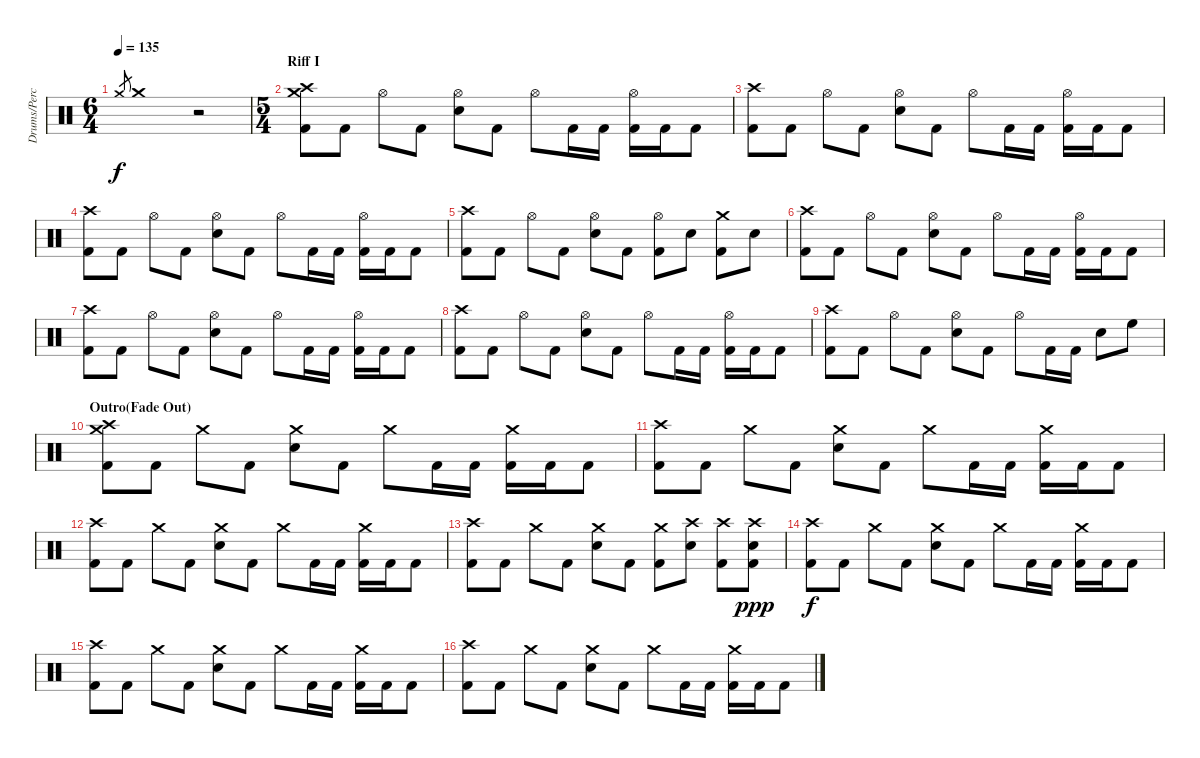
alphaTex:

\track ("Drums/Percussion" "Drums/Perc") {instrument percussion}
\staff {score}
\articulation defaults
\ts (6 4)
\tempo 135
\clef neutral
\ks c "Crash medium (hit)".8{gr dy f} "Crash medium (hit)".1
r.2 |
\ts (5 4)
\section ("" "Riff I")
("Crash medium (hit)" "Crash high (hit)" "Kick (hit) 2").8 "Kick (hit) 2".8 "Hi-Hat (open)".8 "Kick (hit) 2".8 ("Hi-Hat (open)" "Snare (hit) 2").8 "Kick (hit) 2".8 "Hi-Hat (open)".8 "Kick (hit) 2".16 "Kick (hit) 2".16 ("Hi-Hat (open)" "Kick (hit) 2").16 "Kick (hit) 2".16 "Kick (hit) 2".8 |
("Crash high (hit)" "Kick (hit) 2").8 "Kick (hit) 2".8 "Hi-Hat (open)".8 "Kick (hit) 2".8 ("Hi-Hat (open)" "Snare (hit) 2").8 "Kick (hit) 2".8 "Hi-Hat (open)".8 "Kick (hit) 2".16 "Kick (hit) 2".16 ("Hi-Hat (open)" "Kick (hit) 2").16 "Kick (hit) 2".16 "Kick (hit) 2".8 |
("Crash high (hit)" "Kick (hit) 2").8 "Kick (hit) 2".8 "Hi-Hat (open)".8 "Kick (hit) 2".8 ("Hi-Hat (open)" "Snare (hit) 2").8 "Kick (hit) 2".8 "Hi-Hat (open)".8 "Kick (hit) 2".16 "Kick (hit) 2".16 ("Hi-Hat (open)" "Kick (hit) 2").16 "Kick (hit) 2".16 "Kick (hit) 2".8 |
("Crash high (hit)" "Kick (hit) 2").8 "Kick (hit) 2".8 "Hi-Hat (open)".8 "Kick (hit) 2".8 ("Hi-Hat (open)" "Snare (hit) 2").8 "Kick (hit) 2".8 ("Hi-Hat (open)" "Kick (hit) 2").8 "Snare (hit) 2".8 ("Crash medium (hit)" "Kick (hit) 2").8 "Snare (hit) 2".8 |
("Crash high (hit)" "Kick (hit) 2").8 "Kick (hit) 2".8 "Hi-Hat (open)".8 "Kick (hit) 2".8 ("Hi-Hat (open)" "Snare (hit) 2").8 "Kick (hit) 2".8 "Hi-Hat (open)".8 "Kick (hit) 2".16 "Kick (hit) 2".16 ("Hi-Hat (open)" "Kick (hit) 2").16 "Kick (hit) 2".16 "Kick (hit) 2".8 |
("Crash high (hit)" "Kick (hit) 2").8 "Kick (hit) 2".8 "Hi-Hat (open)".8 "Kick (hit) 2".8 ("Hi-Hat (open)" "Snare (hit) 2").8 "Kick (hit) 2".8 "Hi-Hat (open)".8 "Kick (hit) 2".16 "Kick (hit) 2".16 ("Hi-Hat (open)" "Kick (hit) 2").16 "Kick (hit) 2".16 "Kick (hit) 2".8 |
("Crash high (hit)" "Kick (hit) 2").8 "Kick (hit) 2".8 "Hi-Hat (open)".8 "Kick (hit) 2".8 ("Hi-Hat (open)" "Snare (hit) 2").8 "Kick (hit) 2".8 "Hi-Hat (open)".8 "Kick (hit) 2".16 "Kick (hit) 2".16 ("Hi-Hat (open)" "Kick (hit) 2").16 "Kick (hit) 2".16 "Kick (hit) 2".8 |
("Crash high (hit)" "Kick (hit) 2").8 "Kick (hit) 2".8 "Hi-Hat (open)".8 "Kick (hit) 2".8 ("Hi-Hat (open)" "Snare (hit) 2").8 "Kick (hit) 2".8 "Hi-Hat (open)".8 "Kick (hit) 2".16 "Kick (hit) 2".16 "Snare (hit) 2".8 "High Floor Tom (hit)".8 |
\section ("" "Outro(Fade Out)")
("Crash medium (hit)" "Crash high (hit)" "Kick (hit) 2").8{volume 10} "Kick (hit) 2".8 "Crash medium (hit)".8 "Kick (hit) 2".8 ("Crash medium (hit)" "Snare (hit) 2").8 "Kick (hit) 2".8 "Crash medium (hit)".8 "Kick (hit) 2".16 "Kick (hit) 2".16 ("Crash medium (hit)" "Kick (hit) 2").16 "Kick (hit) 2".16 "Kick (hit) 2".8 |
("Crash high (hit)" "Kick (hit) 2").8 "Kick (hit) 2".8 "Crash medium (hit)".8 "Kick (hit) 2".8 ("Crash medium (hit)" "Snare (hit) 2").8 "Kick (hit) 2".8 "Crash medium (hit)".8 "Kick (hit) 2".16 "Kick (hit) 2".16 ("Crash medium (hit)" "Kick (hit) 2").16 "Kick (hit) 2".16 "Kick (hit) 2".8 |
("Crash high (hit)" "Kick (hit) 2").8 "Kick (hit) 2".8 "Crash medium (hit)".8 "Kick (hit) 2".8 ("Crash medium (hit)" "Snare (hit) 2").8 "Kick (hit) 2".8 "Crash medium (hit)".8 "Kick (hit) 2".16 "Kick (hit) 2".16 ("Crash medium (hit)" "Kick (hit) 2").16 "Kick (hit) 2".16 "Kick (hit) 2".8 |
("Crash high (hit)" "Kick (hit) 2").8 "Kick (hit) 2".8 "Crash medium (hit)".8 "Kick (hit) 2".8 ("Crash medium (hit)" "Snare (hit) 2").8 "Kick (hit) 2".8 ("Crash medium (hit)" "Kick (hit) 2").8 ("Crash high (hit)" "Snare (hit) 2").8 ("Crash high (hit)" "Kick (hit) 2").8 ("Crash high (hit)" "Snare (hit)"{x} "Kick (hit) 2").8{dy ppp} |
("Crash high (hit)" "Kick (hit) 2").8{dy f} "Kick (hit) 2".8 "Crash medium (hit)".8 "Kick (hit) 2".8 ("Crash medium (hit)" "Snare (hit) 2").8 "Kick (hit) 2".8 "Crash medium (hit)".8 "Kick (hit) 2".16 "Kick (hit) 2".16 ("Crash medium (hit)" "Kick (hit) 2").16 "Kick (hit) 2".16 "Kick (hit) 2".8 |
("Crash high (hit)" "Kick (hit) 2").8{volume 0} "Kick (hit) 2".8 "Crash medium (hit)".8 "Kick (hit) 2".8 ("Crash medium (hit)" "Snare (hit) 2").8 "Kick (hit) 2".8 "Crash medium (hit)".8 "Kick (hit) 2".16 "Kick (hit) 2".16 ("Crash medium (hit)" "Kick (hit) 2").16 "Kick (hit) 2".16 "Kick (hit) 2".8 |
("Crash high (hit)" "Kick (hit) 2").8 "Kick (hit) 2".8 "Crash medium (hit)".8 "Kick (hit) 2".8 ("Crash medium (hit)" "Snare (hit) 2").8 "Kick (hit) 2".8 "Crash medium (hit)".8 "Kick (hit) 2".16 "Kick (hit) 2".16 ("Crash medium (hit)" "Kick (hit) 2").16 "Kick (hit) 2".16 "Kick (hit) 2".8
